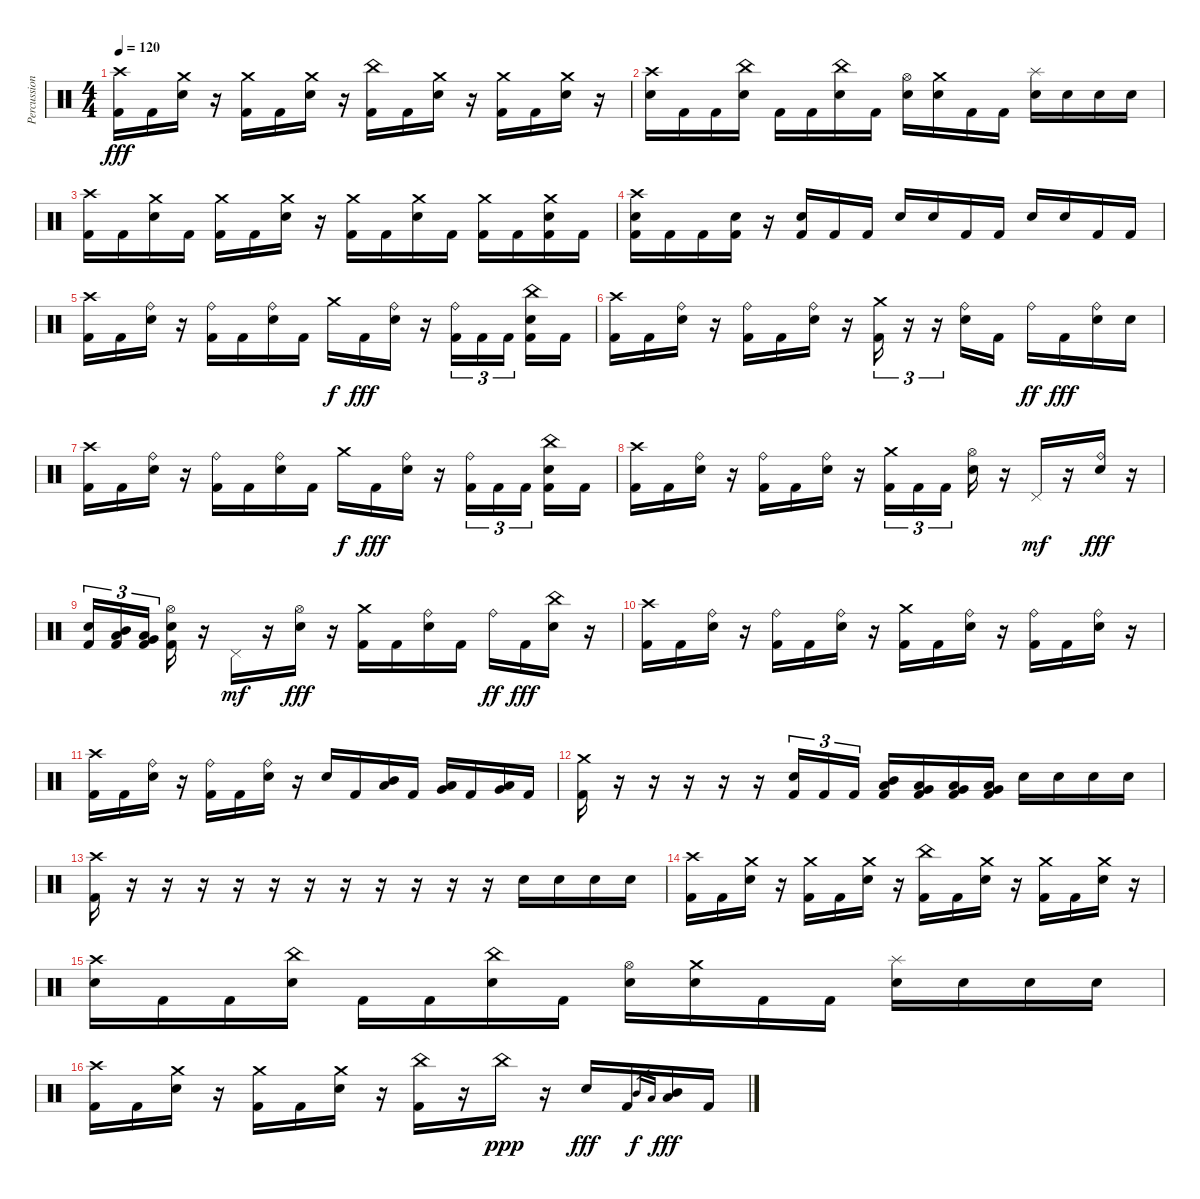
\track ("Percussion" "Percussion") {instrument percussion}
\staff {score}
\articulation defaults
\ts (4 4)
\tempo 120
\clef neutral
\ks c
("Crash high (hit)" "Kick (hit) 2").16{dy fff} "Kick (hit) 2".16 ("Crash medium (hit)" "Electric Snare (hit)").16 r.16 ("Crash medium (hit)" "Kick (hit) 2").16 "Kick (hit) 2".16 ("Crash medium (hit)" "Electric Snare (hit)").16 r.16 ("China (hit)" "Kick (hit) 2").16 "Kick (hit) 2".16 ("Crash medium (hit)" "Electric Snare (hit)").16 r.16 ("Crash medium (hit)" "Kick (hit) 2").16 "Kick (hit) 2".16 ("Crash medium (hit)" "Electric Snare (hit)").16 r.16 |
("Crash high (hit)" "Electric Snare (hit)").16 "Kick (hit) 2".16 "Kick (hit) 2".16 ("China (hit)" "Electric Snare (hit)").16 "Kick (hit) 2".16 "Kick (hit) 2".16 ("China (hit)" "Electric Snare (hit)").16 "Kick (hit) 2".16 ("Hi-Hat (open)" "Electric Snare (hit)").16 ("Crash medium (hit)" "Electric Snare (hit)").16 "Kick (hit) 2".16 "Kick (hit) 2".16 ("Splash (hit)" "Electric Snare (hit)").16 "Electric Snare (hit)".16 "Electric Snare (hit)".16 "Electric Snare (hit)".16 |
("Crash high (hit)" "Kick (hit) 2").16 "Kick (hit) 2".16 ("Crash medium (hit)" "Electric Snare (hit)").16 "Kick (hit) 2".16 ("Crash medium (hit)" "Kick (hit) 2").16 "Kick (hit) 2".16 ("Crash medium (hit)" "Electric Snare (hit)").16 r.16 ("Crash medium (hit)" "Kick (hit) 2").16 "Kick (hit) 2".16 ("Crash medium (hit)" "Electric Snare (hit)").16 "Kick (hit) 2".16 ("Crash medium (hit)" "Kick (hit) 2").16 "Kick (hit) 2".16 ("Crash medium (hit)" "Electric Snare (hit)" "Kick (hit) 2").16 "Kick (hit) 2".16 |
("Crash high (hit)" "Electric Snare (hit)" "Kick (hit) 2").16 "Kick (hit) 2".16 "Kick (hit) 2".16 ("Electric Snare (hit)" "Kick (hit) 2").16 r.16 ("Electric Snare (hit)" "Kick (hit) 2").16 "Kick (hit) 2".16 "Kick (hit) 2".16 "Electric Snare (hit)".16 "Electric Snare (hit)".16 "Kick (hit) 2".16 "Kick (hit) 2".16 "Electric Snare (hit)".16 "Electric Snare (hit)".16 "Kick (hit) 2".16 "Kick (hit) 2".16 |
("Crash high (hit)" "Kick (hit) 2").16 "Kick (hit) 2".16 ("Ride (bell)" "Electric Snare (hit)").16 r.16 ("Ride (bell)" "Kick (hit) 2").16 "Kick (hit) 2".16 ("Ride (bell)" "Electric Snare (hit)").16 "Kick (hit) 2".16 "Crash medium (hit)".16{dy f} "Kick (hit) 2".16{dy fff} ("Ride (bell)" "Electric Snare (hit)").16 r.16 ("Ride (bell)" "Kick (hit) 2").16{tu (3 2)} "Kick (hit) 2".16{tu (3 2)} "Kick (hit) 2".16{tu (3 2) beam splitsecondary} ("China (hit)" "Electric Snare (hit)" "Kick (hit) 2").16 "Kick (hit) 2".16 |
("Crash high (hit)" "Kick (hit) 2").16 "Kick (hit) 2".16 ("Ride (bell)" "Electric Snare (hit)").16 r.16 ("Ride (bell)" "Kick (hit) 2").16 "Kick (hit) 2".16 ("Ride (bell)" "Electric Snare (hit)").16 r.16 ("Crash medium (hit)" "Kick (hit) 2").16{tu (3 2)} r.16{tu (3 2)} r.16{tu (3 2)} ("Ride (bell)" "Electric Snare (hit)").16 "Kick (hit) 2".16 "Ride (bell)".16{dy ff} "Kick (hit) 2".16{dy fff} ("Ride (bell)" "Electric Snare (hit)").16 "Electric Snare (hit)".16 |
("Crash high (hit)" "Kick (hit) 2").16 "Kick (hit) 2".16 ("Ride (bell)" "Electric Snare (hit)").16 r.16 ("Ride (bell)" "Kick (hit) 2").16 "Kick (hit) 2".16 ("Ride (bell)" "Electric Snare (hit)").16 "Kick (hit) 2".16 "Crash medium (hit)".16{dy f} "Kick (hit) 2".16{dy fff} ("Ride (bell)" "Electric Snare (hit)").16 r.16 ("Ride (bell)" "Kick (hit) 2").16{tu (3 2)} "Kick (hit) 2".16{tu (3 2)} "Kick (hit) 2".16{tu (3 2) beam splitsecondary} ("China (hit)" "Electric Snare (hit)" "Kick (hit) 2").16 "Kick (hit) 2".16 |
("Crash high (hit)" "Kick (hit) 2").16 "Kick (hit) 2".16 ("Ride (bell)" "Electric Snare (hit)").16 r.16 ("Ride (bell)" "Kick (hit) 2").16 "Kick (hit) 2".16 ("Ride (bell)" "Electric Snare (hit)").16 r.16 ("Crash medium (hit)" "Kick (hit) 2").16{tu (3 2)} "Kick (hit) 2".16{tu (3 2)} "Kick (hit) 2".16{tu (3 2) beam splitsecondary} ("Hi-Hat (open)" "Electric Snare (hit)").16 r.16 "Pedal Hi-Hat (hit)".16{dy mf} r.16 ("Ride (bell)" "Electric Snare (hit)").16{dy fff} r.16 |
("Electric Snare (hit)" "Kick (hit) 2").16{tu (3 2)} ("Low Tom (hit)" "Mid Tom (hit)" "Kick (hit) 2").16{tu (3 2)} ("Very Low Tom (hit)" "Low Tom (hit)" "Kick (hit) 2").16{tu (3 2) beam splitsecondary} ("Hi-Hat (open)" "Electric Snare (hit)" "Kick (hit) 2").16 r.16 "Pedal Hi-Hat (hit)".16{dy mf} r.16 ("Hi-Hat (open)" "Electric Snare (hit)").16{dy fff} r.16 ("Crash medium (hit)" "Kick (hit) 2").16 "Kick (hit) 2".16 ("Ride (bell)" "Electric Snare (hit)").16 "Kick (hit) 2".16 "Ride (bell)".16{dy ff} "Kick (hit) 2".16{dy fff} ("China (hit)" "Electric Snare (hit)").16 r.16 |
("Crash high (hit)" "Kick (hit) 2").16 "Kick (hit) 2".16 ("Ride (bell)" "Electric Snare (hit)").16 r.16 ("Ride (bell)" "Kick (hit) 2").16 "Kick (hit) 2".16 ("Ride (bell)" "Electric Snare (hit)").16 r.16 ("Crash medium (hit)" "Kick (hit) 2").16 "Kick (hit) 2".16 ("Ride (bell)" "Electric Snare (hit)").16 r.16 ("Ride (bell)" "Kick (hit) 2").16 "Kick (hit) 2".16 ("Ride (bell)" "Electric Snare (hit)").16 r.16 |
("Crash high (hit)" "Kick (hit) 2").16 "Kick (hit) 2".16 ("Ride (bell)" "Electric Snare (hit)").16 r.16 ("Ride (bell)" "Kick (hit) 2").16 "Kick (hit) 2".16 ("Ride (bell)" "Electric Snare (hit)").16 r.16 "Electric Snare (hit)".16 "Kick (hit) 2".16 ("Low Tom (hit)" "Mid Tom (hit)").16 "Kick (hit) 2".16 ("Very Low Tom (hit)" "Low Tom (hit)").16 "Kick (hit) 2".16 ("Low Floor Tom (hit)" "Very Low Tom (hit)").16 "Kick (hit) 2".16 |
("Crash medium (hit)" "Kick (hit) 2").16 r.16 r.16 r.16 r.16 r.16 ("Electric Snare (hit)" "Kick (hit) 2").16{tu (3 2)} "Kick (hit) 2".16{tu (3 2)} "Kick (hit) 2".16{tu (3 2)} ("Low Tom (hit)" "Mid Tom (hit)" "Kick (hit) 2").16 ("Low Tom (hit)" "Very Low Tom (hit)" "Kick (hit) 2").16 ("Low Floor Tom (hit)" "Very Low Tom (hit)" "Kick (hit) 2").16 ("Low Floor Tom (hit)" "Very Low Tom (hit)" "Kick (hit) 2").16 "Electric Snare (hit)".16 "Electric Snare (hit)".16 "Electric Snare (hit)".16 "Electric Snare (hit)".16 |
("Crash high (hit)" "Kick (hit) 2").16 r.16 r.16 r.16 r.16 r.16 r.16 r.16 r.16 r.16 r.16 r.16 "Electric Snare (hit)".16 "Electric Snare (hit)".16 "Electric Snare (hit)".16 "Electric Snare (hit)".16 |
("Crash high (hit)" "Kick (hit) 2").16 "Kick (hit) 2".16 ("Crash medium (hit)" "Electric Snare (hit)").16 r.16 ("Crash medium (hit)" "Kick (hit) 2").16 "Kick (hit) 2".16 ("Crash medium (hit)" "Electric Snare (hit)").16 r.16 ("China (hit)" "Kick (hit) 2").16 "Kick (hit) 2".16 ("Crash medium (hit)" "Electric Snare (hit)").16 r.16 ("Crash medium (hit)" "Kick (hit) 2").16 "Kick (hit) 2".16 ("Crash medium (hit)" "Electric Snare (hit)").16 r.16 |
("Crash high (hit)" "Electric Snare (hit)").16 "Kick (hit) 2".16 "Kick (hit) 2".16 ("China (hit)" "Electric Snare (hit)").16 "Kick (hit) 2".16 "Kick (hit) 2".16 ("China (hit)" "Electric Snare (hit)").16 "Kick (hit) 2".16 ("Hi-Hat (open)" "Electric Snare (hit)").16 ("Crash medium (hit)" "Electric Snare (hit)").16 "Kick (hit) 2".16 "Kick (hit) 2".16 ("Splash (hit)" "Electric Snare (hit)").16 "Electric Snare (hit)".16 "Electric Snare (hit)".16 "Electric Snare (hit)".16 |
("Crash high (hit)" "Kick (hit) 2").16 "Kick (hit) 2".16 ("Crash medium (hit)" "Electric Snare (hit)").16 r.16 ("Crash medium (hit)" "Kick (hit) 2").16 "Kick (hit) 2".16 ("Crash medium (hit)" "Electric Snare (hit)").16 r.16 ("China (hit)" "Kick (hit) 2").16 r.16 "China (hit)".16{dy ppp} r.16 "Electric Snare (hit)".16{dy fff} "Kick (hit) 2".16 "Mid Tom (hit)"{x}.16{gr dy f} "Low Tom (hit)"{x}.16{gr} ("Mid Tom (hit)" "Low Tom (hit)").16{dy fff} "Kick (hit) 2".16
